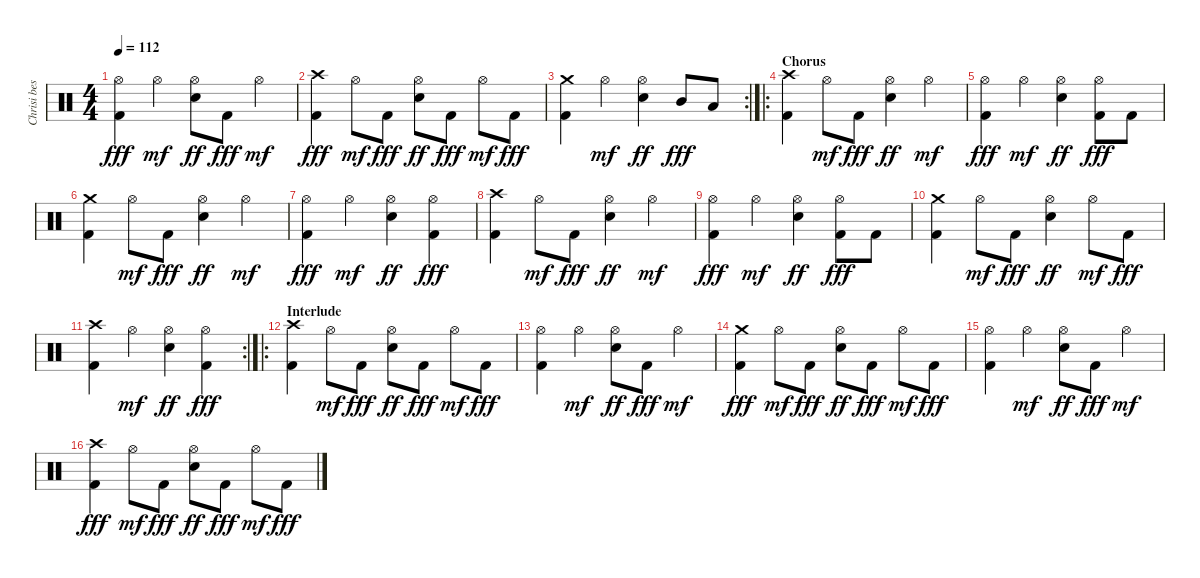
\track ("Chrisi bestimmt" "Chrisi bes") {instrument percussion}
\staff {score}
\articulation defaults
\ts (4 4)
\tempo 112
\clef neutral
\ks c
("Hi-Hat (open)" "Kick (hit) 2").4{dy fff} "Hi-Hat (open)".4{dy mf} ("Hi-Hat (open)" "Electric Snare (hit)").8{dy ff} "Kick (hit) 2".8{dy fff} "Hi-Hat (open)".4{dy mf} |
("Crash high (hit)" "Kick (hit) 2").4{dy fff} "Hi-Hat (open)".8{dy mf} "Kick (hit) 2".8{dy fff} ("Hi-Hat (open)" "Electric Snare (hit)").8{dy ff} "Kick (hit) 2".8{dy fff} "Hi-Hat (open)".8{dy mf} "Kick (hit) 2".8{dy fff} |
\rc 2
("Crash medium (hit)" "Kick (hit) 2").4 "Hi-Hat (open)".4{dy mf} ("Hi-Hat (open)" "Electric Snare (hit)").4{dy ff} "Mid Tom (hit)".8{dy fff} "Low Floor Tom (hit)".8 |
\ro
\section ("" "Chorus")
("Crash high (hit)" "Kick (hit) 2").4 "Hi-Hat (open)".8{dy mf} "Kick (hit) 2".8{dy fff} ("Hi-Hat (open)" "Electric Snare (hit)").4{dy ff} "Hi-Hat (open)".4{dy mf} |
("Hi-Hat (open)" "Kick (hit) 2").4{dy fff} "Hi-Hat (open)".4{dy mf} ("Hi-Hat (open)" "Electric Snare (hit)").4{dy ff} ("Hi-Hat (open)" "Kick (hit) 2").8{dy fff} "Kick (hit) 2".8 |
("Crash medium (hit)" "Kick (hit) 2").4 "Hi-Hat (open)".8{dy mf} "Kick (hit) 2".8{dy fff} ("Hi-Hat (open)" "Electric Snare (hit)").4{dy ff} "Hi-Hat (open)".4{dy mf} |
("Hi-Hat (open)" "Kick (hit) 2").4{dy fff} "Hi-Hat (open)".4{dy mf} ("Hi-Hat (open)" "Electric Snare (hit)").4{dy ff} ("Hi-Hat (open)" "Kick (hit) 2").4{dy fff} |
("Crash high (hit)" "Kick (hit) 2").4 "Hi-Hat (open)".8{dy mf} "Kick (hit) 2".8{dy fff} ("Hi-Hat (open)" "Electric Snare (hit)").4{dy ff} "Hi-Hat (open)".4{dy mf} |
("Hi-Hat (open)" "Kick (hit) 2").4{dy fff} "Hi-Hat (open)".4{dy mf} ("Hi-Hat (open)" "Electric Snare (hit)").4{dy ff} ("Hi-Hat (open)" "Kick (hit) 2").8{dy fff} "Kick (hit) 2".8 |
("Crash medium (hit)" "Kick (hit) 2").4 "Hi-Hat (open)".8{dy mf} "Kick (hit) 2".8{dy fff} ("Hi-Hat (open)" "Electric Snare (hit)").4{dy ff} "Hi-Hat (open)".8{dy mf} "Kick (hit) 2".8{dy fff} |
\rc 2
("Crash high (hit)" "Kick (hit) 2").4 "Hi-Hat (open)".4{dy mf} ("Hi-Hat (open)" "Electric Snare (hit)").4{dy ff} ("Hi-Hat (open)" "Kick (hit) 2").4{dy fff} |
\ro
\section ("" "Interlude")
("Crash high (hit)" "Kick (hit) 2").4 "Hi-Hat (open)".8{dy mf} "Kick (hit) 2".8{dy fff} ("Hi-Hat (open)" "Electric Snare (hit)").8{dy ff} "Kick (hit) 2".8{dy fff} "Hi-Hat (open)".8{dy mf} "Kick (hit) 2".8{dy fff} |
("Hi-Hat (open)" "Kick (hit) 2").4 "Hi-Hat (open)".4{dy mf} ("Hi-Hat (open)" "Electric Snare (hit)").8{dy ff} "Kick (hit) 2".8{dy fff} "Hi-Hat (open)".4{dy mf} |
("Crash medium (hit)" "Kick (hit) 2").4{dy fff} "Hi-Hat (open)".8{dy mf} "Kick (hit) 2".8{dy fff} ("Hi-Hat (open)" "Electric Snare (hit)").8{dy ff} "Kick (hit) 2".8{dy fff} "Hi-Hat (open)".8{dy mf} "Kick (hit) 2".8{dy fff} |
("Hi-Hat (open)" "Kick (hit) 2").4 "Hi-Hat (open)".4{dy mf} ("Hi-Hat (open)" "Electric Snare (hit)").8{dy ff} "Kick (hit) 2".8{dy fff} "Hi-Hat (open)".4{dy mf} |
("Crash high (hit)" "Kick (hit) 2").4{dy fff} "Hi-Hat (open)".8{dy mf} "Kick (hit) 2".8{dy fff} ("Hi-Hat (open)" "Electric Snare (hit)").8{dy ff} "Kick (hit) 2".8{dy fff} "Hi-Hat (open)".8{dy mf} "Kick (hit) 2".8{dy fff}
